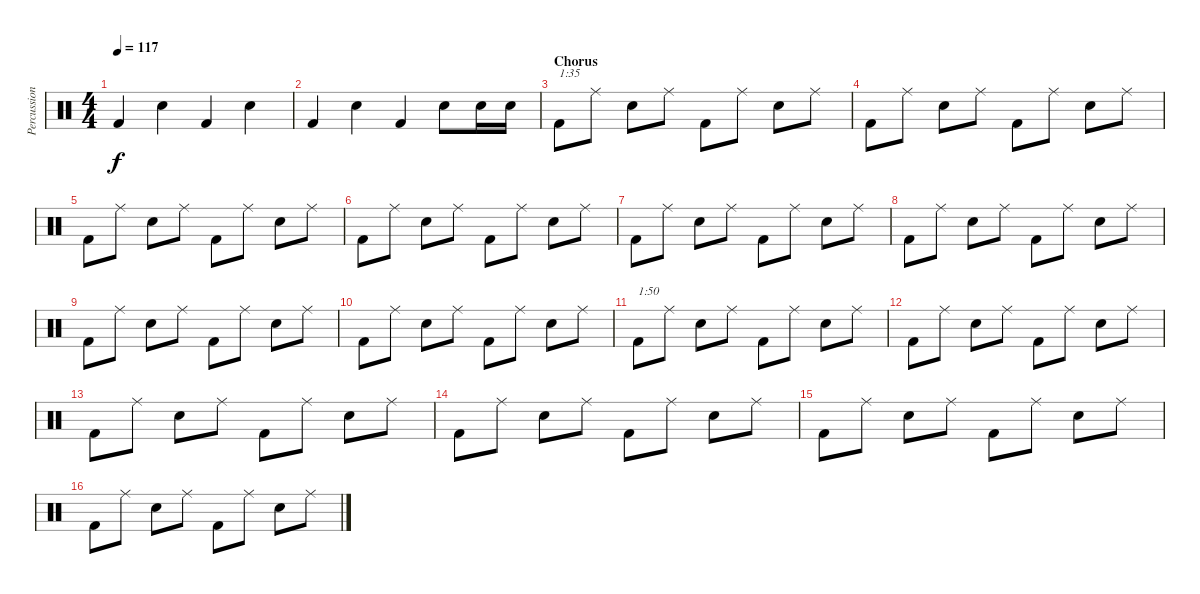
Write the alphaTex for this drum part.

\track ("Percussion" "Percussion") {instrument percussion}
\staff {score}
\articulation defaults
\ts (4 4)
\tempo 117
\clef neutral
\ks c "Kick (hit) 2".4{dy f} "Snare (hit) 2".4 "Kick (hit) 2".4 "Snare (hit) 2".4
|
"Kick (hit) 2".4 "Snare (hit) 2".4 "Kick (hit) 2".4 "Snare (hit) 2".8 "Electric Snare (hit)".16 "Electric Snare (hit)".16 |
\section ("" "Chorus")
"Kick (hit) 2".8{txt "1:35"} "Ride (middle)".8 "Snare (hit) 2".8 "Ride (middle)".8 "Kick (hit) 2".8 "Ride (middle)".8 "Snare (hit) 2".8 "Ride (middle)".8 |
"Kick (hit) 2".8 "Ride (middle)".8 "Snare (hit) 2".8 "Ride (middle)".8 "Kick (hit) 2".8 "Ride (middle)".8 "Snare (hit) 2".8 "Ride (middle)".8 |
"Kick (hit) 2".8 "Ride (middle)".8 "Snare (hit) 2".8 "Ride (middle)".8 "Kick (hit) 2".8 "Ride (middle)".8 "Snare (hit) 2".8 "Ride (middle)".8 |
"Kick (hit) 2".8 "Ride (middle)".8 "Snare (hit) 2".8 "Ride (middle)".8 "Kick (hit) 2".8 "Ride (middle)".8 "Snare (hit) 2".8 "Ride (middle)".8 |
"Kick (hit) 2".8 "Ride (middle)".8 "Snare (hit) 2".8 "Ride (middle)".8 "Kick (hit) 2".8 "Ride (middle)".8 "Snare (hit) 2".8 "Ride (middle)".8 |
"Kick (hit) 2".8 "Ride (middle)".8 "Snare (hit) 2".8 "Ride (middle)".8 "Kick (hit) 2".8 "Ride (middle)".8 "Snare (hit) 2".8 "Ride (middle)".8 |
"Kick (hit) 2".8 "Ride (middle)".8 "Snare (hit) 2".8 "Ride (middle)".8 "Kick (hit) 2".8 "Ride (middle)".8 "Snare (hit) 2".8 "Ride (middle)".8 |
"Kick (hit) 2".8 "Ride (middle)".8 "Snare (hit) 2".8 "Ride (middle)".8 "Kick (hit) 2".8 "Ride (middle)".8 "Snare (hit) 2".8 "Ride (middle)".8 |
"Kick (hit) 2".8{txt "1:50"} "Ride (middle)".8 "Snare (hit) 2".8 "Ride (middle)".8 "Kick (hit) 2".8 "Ride (middle)".8 "Snare (hit) 2".8 "Ride (middle)".8 |
"Kick (hit) 2".8 "Ride (middle)".8 "Snare (hit) 2".8 "Ride (middle)".8 "Kick (hit) 2".8 "Ride (middle)".8 "Snare (hit) 2".8 "Ride (middle)".8 |
"Kick (hit) 2".8 "Ride (middle)".8 "Snare (hit) 2".8 "Ride (middle)".8 "Kick (hit) 2".8 "Ride (middle)".8 "Snare (hit) 2".8 "Ride (middle)".8 |
"Kick (hit) 2".8 "Ride (middle)".8 "Snare (hit) 2".8 "Ride (middle)".8 "Kick (hit) 2".8 "Ride (middle)".8 "Snare (hit) 2".8 "Ride (middle)".8 |
"Kick (hit) 2".8 "Ride (middle)".8 "Snare (hit) 2".8 "Ride (middle)".8 "Kick (hit) 2".8 "Ride (middle)".8 "Snare (hit) 2".8 "Ride (middle)".8 |
"Kick (hit) 2".8 "Ride (middle)".8 "Snare (hit) 2".8 "Ride (middle)".8 "Kick (hit) 2".8 "Ride (middle)".8 "Snare (hit) 2".8 "Ride (middle)".8
